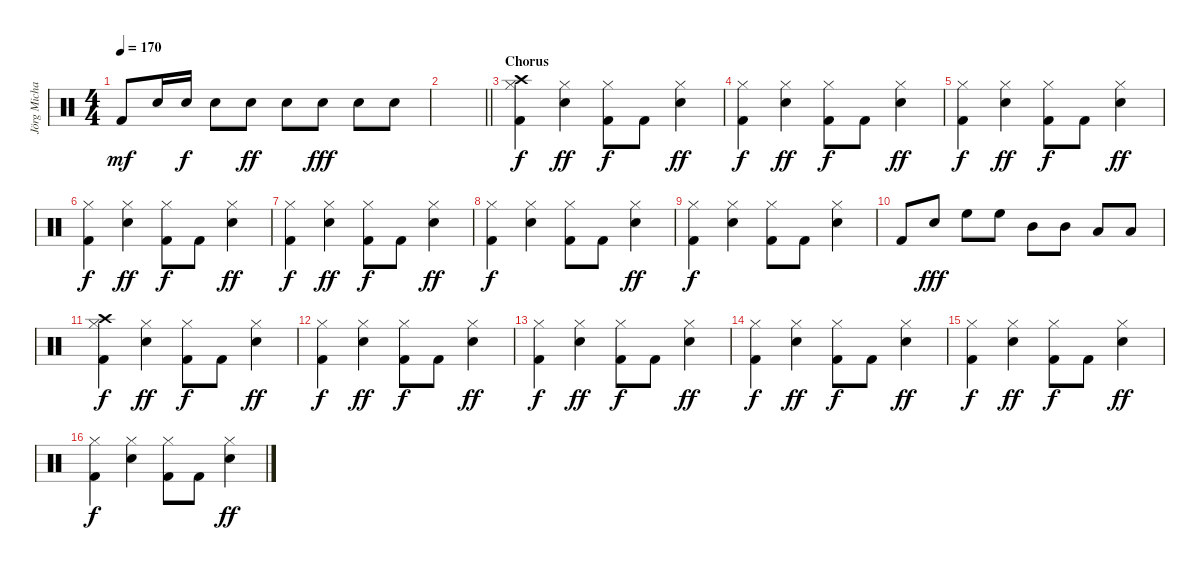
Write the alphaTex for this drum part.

\track ("Jörg Michael" "Jörg Micha") {instrument percussion}
\staff {score}
\articulation defaults
\ts (4 4)
\tempo 170
\clef neutral
\ks c "Kick (hit) 2".8{dy mf} "Electric Snare (hit)".16 "Electric Snare (hit)".16{dy f} "Electric Snare (hit)".8 "Electric Snare (hit)".8{dy ff} "Electric Snare (hit)".8 "Electric Snare (hit)".8{dy fff} "Electric Snare (hit)".8 "Electric Snare (hit)".8
|
\barLineRight lightlight
|
\section ("" "Chorus")
("Kick (hit) 2" "Hi-Hat (closed)" "Crash high (hit)").4{dy f} ("Electric Snare (hit)" "Hi-Hat (closed)").4{dy ff} ("Kick (hit) 2" "Hi-Hat (closed)").8{dy f} "Kick (hit) 2".8 ("Electric Snare (hit)" "Hi-Hat (closed)").4{dy ff} |
("Kick (hit) 2" "Hi-Hat (closed)").4{dy f} ("Electric Snare (hit)" "Hi-Hat (closed)").4{dy ff} ("Kick (hit) 2" "Hi-Hat (closed)").8{dy f} "Kick (hit) 2".8 ("Electric Snare (hit)" "Hi-Hat (closed)").4{dy ff} |
("Kick (hit) 2" "Hi-Hat (closed)").4{dy f} ("Electric Snare (hit)" "Hi-Hat (closed)").4{dy ff} ("Kick (hit) 2" "Hi-Hat (closed)").8{dy f} "Kick (hit) 2".8 ("Electric Snare (hit)" "Hi-Hat (closed)").4{dy ff} |
("Kick (hit) 2" "Hi-Hat (closed)").4{dy f} ("Electric Snare (hit)" "Hi-Hat (closed)").4{dy ff} ("Kick (hit) 2" "Hi-Hat (closed)").8{dy f} "Kick (hit) 2".8 ("Electric Snare (hit)" "Hi-Hat (closed)").4{dy ff} |
("Kick (hit) 2" "Hi-Hat (closed)").4{dy f} ("Electric Snare (hit)" "Hi-Hat (closed)").4{dy ff} ("Kick (hit) 2" "Hi-Hat (closed)").8{dy f} "Kick (hit) 2".8 ("Electric Snare (hit)" "Hi-Hat (closed)").4{dy ff} |
("Kick (hit) 2" "Hi-Hat (closed)").4{dy f} ("Electric Snare (hit)" "Hi-Hat (closed)").4 ("Kick (hit) 2" "Hi-Hat (closed)").8 "Kick (hit) 2".8 ("Electric Snare (hit)" "Hi-Hat (closed)").4{dy ff} |
("Kick (hit) 2" "Hi-Hat (closed)").4{dy f} ("Electric Snare (hit)" "Hi-Hat (closed)").4 ("Kick (hit) 2" "Hi-Hat (closed)").8 "Kick (hit) 2".8 ("Electric Snare (hit)" "Hi-Hat (closed)").4 |
"Kick (hit) 2".8 "Electric Snare (hit)".8{dy fff} "High Floor Tom (hit)".8 "High Floor Tom (hit)".8 "Mid Tom (hit)".8 "Mid Tom (hit)".8 "Low Tom (hit)".8 "Low Tom (hit)".8 |
("Kick (hit) 2" "Hi-Hat (closed)" "Crash high (hit)").4{dy f} ("Electric Snare (hit)" "Hi-Hat (closed)").4{dy ff} ("Kick (hit) 2" "Hi-Hat (closed)").8{dy f} "Kick (hit) 2".8 ("Electric Snare (hit)" "Hi-Hat (closed)").4{dy ff} |
("Kick (hit) 2" "Hi-Hat (closed)").4{dy f} ("Electric Snare (hit)" "Hi-Hat (closed)").4{dy ff} ("Kick (hit) 2" "Hi-Hat (closed)").8{dy f} "Kick (hit) 2".8 ("Electric Snare (hit)" "Hi-Hat (closed)").4{dy ff} |
("Kick (hit) 2" "Hi-Hat (closed)").4{dy f} ("Electric Snare (hit)" "Hi-Hat (closed)").4{dy ff} ("Kick (hit) 2" "Hi-Hat (closed)").8{dy f} "Kick (hit) 2".8 ("Electric Snare (hit)" "Hi-Hat (closed)").4{dy ff} |
("Kick (hit) 2" "Hi-Hat (closed)").4{dy f} ("Electric Snare (hit)" "Hi-Hat (closed)").4{dy ff} ("Kick (hit) 2" "Hi-Hat (closed)").8{dy f} "Kick (hit) 2".8 ("Electric Snare (hit)" "Hi-Hat (closed)").4{dy ff} |
("Kick (hit) 2" "Hi-Hat (closed)").4{dy f} ("Electric Snare (hit)" "Hi-Hat (closed)").4{dy ff} ("Kick (hit) 2" "Hi-Hat (closed)").8{dy f} "Kick (hit) 2".8 ("Electric Snare (hit)" "Hi-Hat (closed)").4{dy ff} |
("Kick (hit) 2" "Hi-Hat (closed)").4{dy f} ("Electric Snare (hit)" "Hi-Hat (closed)").4 ("Kick (hit) 2" "Hi-Hat (closed)").8 "Kick (hit) 2".8 ("Electric Snare (hit)" "Hi-Hat (closed)").4{dy ff}
